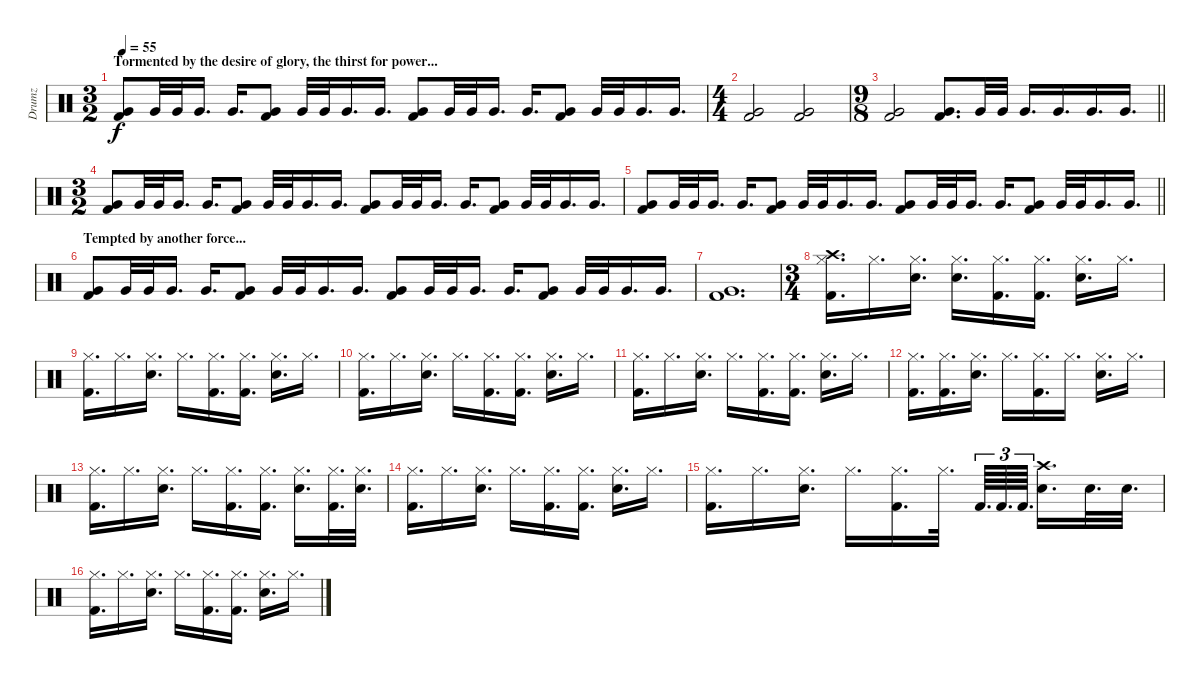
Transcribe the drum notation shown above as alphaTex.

\track ("Drumz" "Drumz") {instrument percussion}
\staff {score}
\articulation defaults
\ts (3 2)
\section ("" "Tormented by the desire of glory, the thirst for power...")
\tempo 55
\clef neutral
\ks c
("Very Low Tom (hit)" "Kick (hit) 2").8{dy f} "Very Low Tom (hit)".32 "Very Low Tom (hit)".32 "Very Low Tom (hit)".16{d} "Very Low Tom (hit)".16{d} ("Very Low Tom (hit)" "Kick (hit) 2").8 "Very Low Tom (hit)".32 "Very Low Tom (hit)".32 "Very Low Tom (hit)".16{d} "Very Low Tom (hit)".16{d} ("Very Low Tom (hit)" "Kick (hit) 2").8 "Very Low Tom (hit)".32 "Very Low Tom (hit)".32 "Very Low Tom (hit)".16{d} "Very Low Tom (hit)".16{d} ("Very Low Tom (hit)" "Kick (hit) 2").8 "Very Low Tom (hit)".32 "Very Low Tom (hit)".32 "Very Low Tom (hit)".16{d} "Very Low Tom (hit)".16{d} |
\ts (4 4)
("Very Low Tom (hit)" "Kick (hit) 2").2 ("Very Low Tom (hit)" "Kick (hit) 2").2 |
\ts (9 8)
\barLineRight lightlight
("Very Low Tom (hit)" "Kick (hit) 2").2 ("Very Low Tom (hit)" "Kick (hit) 2").8{d} "Very Low Tom (hit)".32 "Very Low Tom (hit)".32 "Very Low Tom (hit)".16{d} "Very Low Tom (hit)".16{d} "Very Low Tom (hit)".16{d} "Very Low Tom (hit)".16{d} |
\ts (3 2)
("Very Low Tom (hit)" "Kick (hit) 2").8 "Very Low Tom (hit)".32 "Very Low Tom (hit)".32 "Very Low Tom (hit)".16{d} "Very Low Tom (hit)".16{d} ("Very Low Tom (hit)" "Kick (hit) 2").8 "Very Low Tom (hit)".32 "Very Low Tom (hit)".32 "Very Low Tom (hit)".16{d} "Very Low Tom (hit)".16{d} ("Very Low Tom (hit)" "Kick (hit) 2").8 "Very Low Tom (hit)".32 "Very Low Tom (hit)".32 "Very Low Tom (hit)".16{d} "Very Low Tom (hit)".16{d} ("Very Low Tom (hit)" "Kick (hit) 2").8 "Very Low Tom (hit)".32 "Very Low Tom (hit)".32 "Very Low Tom (hit)".16{d} "Very Low Tom (hit)".16{d} |
\barLineRight lightlight
("Very Low Tom (hit)" "Kick (hit) 2").8 "Very Low Tom (hit)".32 "Very Low Tom (hit)".32 "Very Low Tom (hit)".16{d} "Very Low Tom (hit)".16{d} ("Very Low Tom (hit)" "Kick (hit) 2").8 "Very Low Tom (hit)".32 "Very Low Tom (hit)".32 "Very Low Tom (hit)".16{d} "Very Low Tom (hit)".16{d} ("Very Low Tom (hit)" "Kick (hit) 2").8 "Very Low Tom (hit)".32 "Very Low Tom (hit)".32 "Very Low Tom (hit)".16{d} "Very Low Tom (hit)".16{d} ("Very Low Tom (hit)" "Kick (hit) 2").8 "Very Low Tom (hit)".32 "Very Low Tom (hit)".32 "Very Low Tom (hit)".16{d} "Very Low Tom (hit)".16{d} |
\section ("" "Tempted by another force...")
("Very Low Tom (hit)" "Kick (hit) 2").8 "Very Low Tom (hit)".32 "Very Low Tom (hit)".32 "Very Low Tom (hit)".16{d} "Very Low Tom (hit)".16{d} ("Very Low Tom (hit)" "Kick (hit) 2").8 "Very Low Tom (hit)".32 "Very Low Tom (hit)".32 "Very Low Tom (hit)".16{d} "Very Low Tom (hit)".16{d} ("Very Low Tom (hit)" "Kick (hit) 2").8 "Very Low Tom (hit)".32 "Very Low Tom (hit)".32 "Very Low Tom (hit)".16{d} "Very Low Tom (hit)".16{d} ("Very Low Tom (hit)" "Kick (hit) 2").8 "Very Low Tom (hit)".32 "Very Low Tom (hit)".32 "Very Low Tom (hit)".16{d} "Very Low Tom (hit)".16{d} |
("Very Low Tom (hit)" "Kick (hit) 2").1{d} |
\ts (3 4)
("Hi-Hat (closed)" "Crash high (hit)" "Kick (hit) 2").16{d} "Hi-Hat (closed)".16{d} ("Hi-Hat (closed)" "Snare (hit) 2").16{d} ("Hi-Hat (closed)" "Snare (hit) 2").16{d} ("Hi-Hat (closed)" "Kick (hit) 2").16{d} ("Hi-Hat (closed)" "Kick (hit) 2").16{d} ("Hi-Hat (closed)" "Snare (hit) 2").16{d} "Hi-Hat (closed)".16{d} |
("Hi-Hat (closed)" "Kick (hit) 2").16{d} "Hi-Hat (closed)".16{d} ("Hi-Hat (closed)" "Snare (hit) 2").16{d} "Hi-Hat (closed)".16{d} ("Hi-Hat (closed)" "Kick (hit) 2").16{d} ("Hi-Hat (closed)" "Kick (hit) 2").16{d} ("Hi-Hat (closed)" "Snare (hit) 2").16{d} "Hi-Hat (closed)".16{d} |
("Hi-Hat (closed)" "Kick (hit) 2").16{d} "Hi-Hat (closed)".16{d} ("Hi-Hat (closed)" "Snare (hit) 2").16{d} "Hi-Hat (closed)".16{d} ("Hi-Hat (closed)" "Kick (hit) 2").16{d} ("Hi-Hat (closed)" "Kick (hit) 2").16{d} ("Hi-Hat (closed)" "Snare (hit) 2").16{d} "Hi-Hat (closed)".16{d} |
("Hi-Hat (closed)" "Kick (hit) 2").16{d} "Hi-Hat (closed)".16{d} ("Hi-Hat (closed)" "Snare (hit) 2").16{d} "Hi-Hat (closed)".16{d} ("Hi-Hat (closed)" "Kick (hit) 2").16{d} ("Hi-Hat (closed)" "Kick (hit) 2").16{d} ("Hi-Hat (closed)" "Snare (hit) 2").16{d} "Hi-Hat (closed)".16{d} |
("Hi-Hat (closed)" "Kick (hit) 2").16{d} ("Hi-Hat (closed)" "Kick (hit) 2").16{d} ("Hi-Hat (closed)" "Snare (hit) 2").16{d} "Hi-Hat (closed)".16{d} ("Hi-Hat (closed)" "Kick (hit) 2").16{d} "Hi-Hat (closed)".16{d} ("Hi-Hat (closed)" "Snare (hit) 2").16{d} "Hi-Hat (closed)".16{d} |
("Hi-Hat (closed)" "Kick (hit) 2").16{d} "Hi-Hat (closed)".16{d} ("Hi-Hat (closed)" "Snare (hit) 2").16{d} "Hi-Hat (closed)".16{d} ("Hi-Hat (closed)" "Kick (hit) 2").16{d} ("Hi-Hat (closed)" "Kick (hit) 2").16{d} ("Hi-Hat (closed)" "Snare (hit) 2").16{d} ("Hi-Hat (closed)" "Kick (hit) 2").32{d} ("Hi-Hat (closed)" "Snare (hit) 2").32{d} |
("Hi-Hat (closed)" "Kick (hit) 2").16{d} "Hi-Hat (closed)".16{d} ("Hi-Hat (closed)" "Snare (hit) 2").16{d} "Hi-Hat (closed)".16{d} ("Hi-Hat (closed)" "Kick (hit) 2").16{d} ("Hi-Hat (closed)" "Kick (hit) 2").16{d} ("Hi-Hat (closed)" "Snare (hit) 2").16{d} "Hi-Hat (closed)".16{d} |
("Hi-Hat (closed)" "Kick (hit) 2").16{d} "Hi-Hat (closed)".16{d} ("Hi-Hat (closed)" "Snare (hit) 2").16{d} "Hi-Hat (closed)".16{d} ("Hi-Hat (closed)" "Kick (hit) 2").16{d} "Hi-Hat (closed)".32{d} "Kick (hit) 2".64{d tu (3 2)} "Kick (hit) 2".64{d tu (3 2)} "Kick (hit) 2".64{d tu (3 2) beam splitsecondary} ("Crash high (hit)" "Snare (hit) 2").16{d} "Snare (hit) 2".32{d} "Snare (hit) 2".32{d} |
("Hi-Hat (closed)" "Kick (hit) 2").16{d} "Hi-Hat (closed)".16{d} ("Hi-Hat (closed)" "Snare (hit) 2").16{d} "Hi-Hat (closed)".16{d} ("Hi-Hat (closed)" "Kick (hit) 2").16{d} ("Hi-Hat (closed)" "Kick (hit) 2").16{d} ("Hi-Hat (closed)" "Snare (hit) 2").16{d} "Hi-Hat (closed)".16{d}
